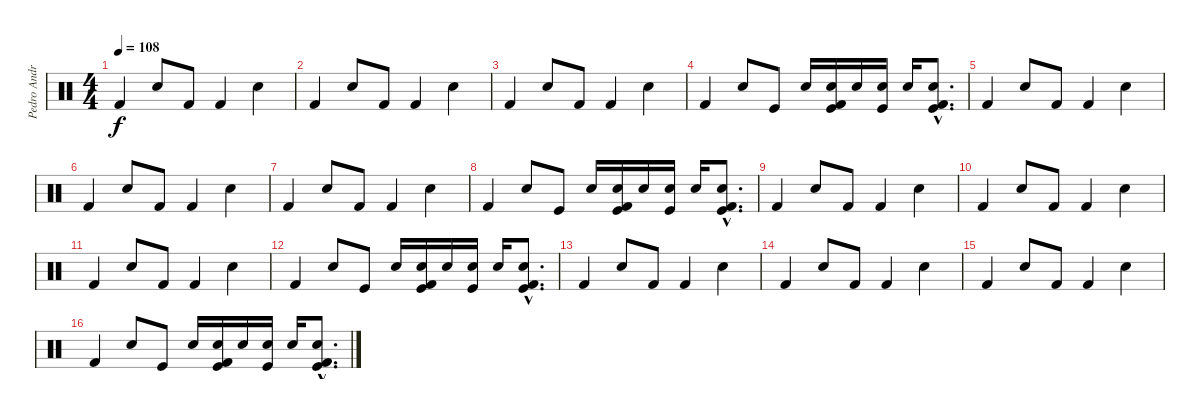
\track ("Pedro Andreu" "Pedro Andr") {instrument percussion}
\staff {score}
\articulation defaults
\ts (4 4)
\tempo 108
\clef neutral
\ks c "Kick (hit) 2".4{dy f} "Snare (hit) 2".8 "Kick (hit) 2".8 "Kick (hit) 2".4 "Snare (hit) 2".4
|
"Kick (hit) 2".4 "Snare (hit) 2".8 "Kick (hit) 2".8 "Kick (hit) 2".4 "Snare (hit) 2".4 |
"Kick (hit) 2".4 "Snare (hit) 2".8 "Kick (hit) 2".8 "Kick (hit) 2".4 "Snare (hit) 2".4 |
"Kick (hit) 2".4 "Snare (hit) 2".8 "Kick (hit)".8 "Snare (hit) 2".16 ("Snare (hit) 2" "Kick (hit) 2" "Kick (hit)").16 "Snare (hit) 2".16 ("Snare (hit) 2" "Kick (hit)").16 "Snare (hit) 2".16 ("Snare (hit) 2"{hac} "Kick (hit)"{hac} "Kick (hit) 2"{hac}).8{d} |
"Kick (hit) 2".4 "Snare (hit) 2".8 "Kick (hit) 2".8 "Kick (hit) 2".4 "Snare (hit) 2".4 |
"Kick (hit) 2".4 "Snare (hit) 2".8 "Kick (hit) 2".8 "Kick (hit) 2".4 "Snare (hit) 2".4 |
"Kick (hit) 2".4 "Snare (hit) 2".8 "Kick (hit) 2".8 "Kick (hit) 2".4 "Snare (hit) 2".4 |
"Kick (hit) 2".4 "Snare (hit) 2".8 "Kick (hit)".8 "Snare (hit) 2".16 ("Snare (hit) 2" "Kick (hit) 2" "Kick (hit)").16 "Snare (hit) 2".16 ("Snare (hit) 2" "Kick (hit)").16 "Snare (hit) 2".16 ("Snare (hit) 2"{hac} "Kick (hit)"{hac} "Kick (hit) 2"{hac}).8{d} |
"Kick (hit) 2".4 "Snare (hit) 2".8 "Kick (hit) 2".8 "Kick (hit) 2".4 "Snare (hit) 2".4 |
"Kick (hit) 2".4 "Snare (hit) 2".8 "Kick (hit) 2".8 "Kick (hit) 2".4 "Snare (hit) 2".4 |
"Kick (hit) 2".4 "Snare (hit) 2".8 "Kick (hit) 2".8 "Kick (hit) 2".4 "Snare (hit) 2".4 |
"Kick (hit) 2".4 "Snare (hit) 2".8 "Kick (hit)".8 "Snare (hit) 2".16 ("Snare (hit) 2" "Kick (hit) 2" "Kick (hit)").16 "Snare (hit) 2".16 ("Snare (hit) 2" "Kick (hit)").16 "Snare (hit) 2".16 ("Snare (hit) 2"{hac} "Kick (hit)"{hac} "Kick (hit) 2"{hac}).8{d} |
"Kick (hit) 2".4 "Snare (hit) 2".8 "Kick (hit) 2".8 "Kick (hit) 2".4 "Snare (hit) 2".4 |
"Kick (hit) 2".4 "Snare (hit) 2".8 "Kick (hit) 2".8 "Kick (hit) 2".4 "Snare (hit) 2".4 |
"Kick (hit) 2".4 "Snare (hit) 2".8 "Kick (hit) 2".8 "Kick (hit) 2".4 "Snare (hit) 2".4 |
"Kick (hit) 2".4 "Snare (hit) 2".8 "Kick (hit)".8 "Snare (hit) 2".16 ("Snare (hit) 2" "Kick (hit) 2" "Kick (hit)").16 "Snare (hit) 2".16 ("Snare (hit) 2" "Kick (hit)").16 "Snare (hit) 2".16 ("Snare (hit) 2"{hac} "Kick (hit)"{hac} "Kick (hit) 2"{hac}).8{d}
